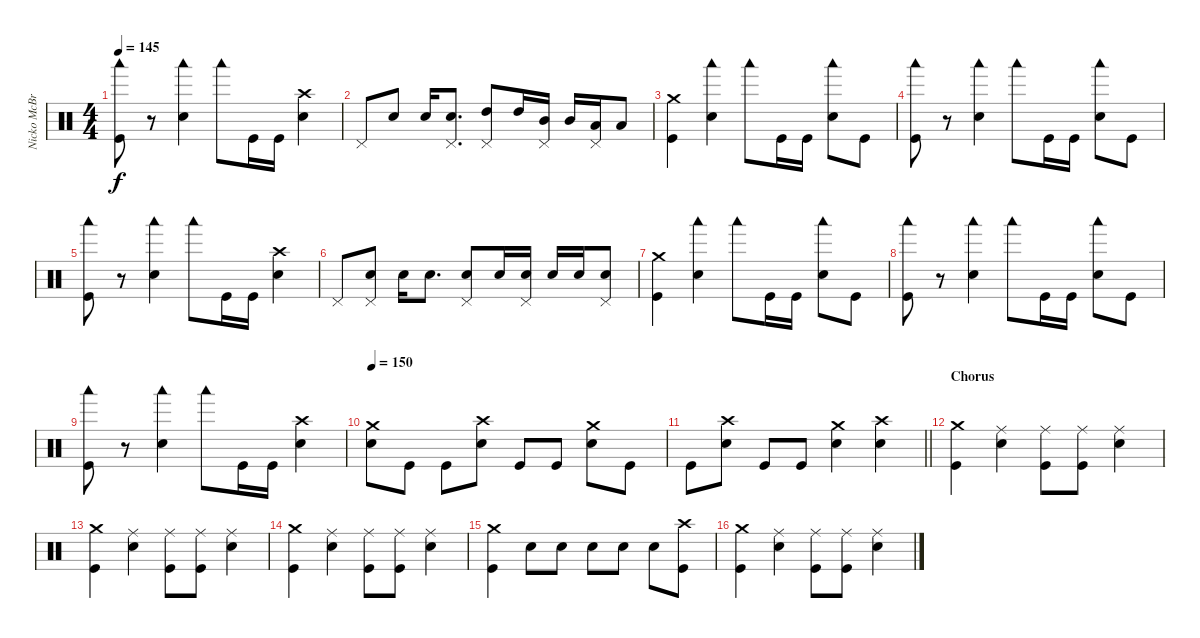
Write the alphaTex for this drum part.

\track ("Nicko McBrain" "Nicko McBr") {instrument percussion}
\staff {score}
\articulation defaults
\ts (4 4)
\tempo 145
\clef neutral
\ks c
("Woodblock low (hit)" "Kick (hit)").8{dy f} r.8 ("Woodblock low (hit)" "Electric Snare (hit)").4 "Woodblock low (hit)".8 "Kick (hit)".16 "Kick (hit)".16 ("Crash high (hit)" "Electric Snare (hit)").4 |
"Pedal Hi-Hat (hit)".8 "Electric Snare (hit)".8 "Electric Snare (hit)".16 ("Pedal Hi-Hat (hit)" "Electric Snare (hit)").8{d} ("Pedal Hi-Hat (hit)" "High Tom (hit)").8 "High Tom (hit)".16 ("Pedal Hi-Hat (hit)" "Mid Tom (hit)").16 "Mid Tom (hit)".16 ("Pedal Hi-Hat (hit)" "Low Tom (hit)").16 "Low Tom (hit)".8 |
("Crash medium (hit)" "Kick (hit)").4 ("Woodblock low (hit)" "Electric Snare (hit)").4 "Woodblock low (hit)".8 "Kick (hit)".16 "Kick (hit)".16 ("Woodblock low (hit)" "Electric Snare (hit)").8 "Kick (hit)".8 |
("Woodblock low (hit)" "Kick (hit)").8 r.8 ("Woodblock low (hit)" "Electric Snare (hit)").4 "Woodblock low (hit)".8 "Kick (hit)".16 "Kick (hit)".16 ("Woodblock low (hit)" "Electric Snare (hit)").8 "Kick (hit)".8 |
("Woodblock low (hit)" "Kick (hit)").8 r.8 ("Woodblock low (hit)" "Electric Snare (hit)").4 "Woodblock low (hit)".8 "Kick (hit)".16 "Kick (hit)".16 ("Crash high (hit)" "Electric Snare (hit)").4 |
"Pedal Hi-Hat (hit)".8 ("Pedal Hi-Hat (hit)" "Electric Snare (hit)").8 "Electric Snare (hit)".16 "Electric Snare (hit)".8{d} ("Pedal Hi-Hat (hit)" "Electric Snare (hit)").8 "Electric Snare (hit)".16 ("Pedal Hi-Hat (hit)" "Electric Snare (hit)").16 "Electric Snare (hit)".16 "Electric Snare (hit)".16 ("Pedal Hi-Hat (hit)" "Electric Snare (hit)").8 |
("Crash medium (hit)" "Kick (hit)").4 ("Woodblock low (hit)" "Electric Snare (hit)").4 "Woodblock low (hit)".8 "Kick (hit)".16 "Kick (hit)".16 ("Woodblock low (hit)" "Electric Snare (hit)").8 "Kick (hit)".8 |
("Woodblock low (hit)" "Kick (hit)").8 r.8 ("Woodblock low (hit)" "Electric Snare (hit)").4 "Woodblock low (hit)".8 "Kick (hit)".16 "Kick (hit)".16 ("Woodblock low (hit)" "Electric Snare (hit)").8 "Kick (hit)".8 |
("Woodblock low (hit)" "Kick (hit)").8 r.8 ("Woodblock low (hit)" "Electric Snare (hit)").4 "Woodblock low (hit)".8 "Kick (hit)".16 "Kick (hit)".16 ("Crash high (hit)" "Electric Snare (hit)").4 |
\tempo 150
("Crash medium (hit)" "Electric Snare (hit)").8 "Kick (hit)".8 "Kick (hit)".8 ("Crash high (hit)" "Electric Snare (hit)").8 "Kick (hit)".8 "Kick (hit)".8 ("Crash medium (hit)" "Electric Snare (hit)").8 "Kick (hit)".8 |
\barLineRight lightlight "Kick (hit)".8
("Crash high (hit)" "Electric Snare (hit)").8 "Kick (hit)".8 "Kick (hit)".8 ("Crash medium (hit)" "Electric Snare (hit)").4 ("Crash high (hit)" "Electric Snare (hit)").4 |
\section ("" "Chorus")
("Kick (hit)" "Crash medium (hit)").4 ("Electric Snare (hit)" "Ride (middle)").4 ("Kick (hit)" "Ride (middle)").8 ("Kick (hit)" "Ride (middle)").8 ("Electric Snare (hit)" "Ride (middle)").4 |
("Kick (hit)" "Crash medium (hit)").4 ("Electric Snare (hit)" "Ride (middle)").4 ("Kick (hit)" "Ride (middle)").8 ("Kick (hit)" "Ride (middle)").8 ("Electric Snare (hit)" "Ride (middle)").4 |
("Kick (hit)" "Crash medium (hit)").4 ("Electric Snare (hit)" "Ride (middle)").4 ("Kick (hit)" "Ride (middle)").8 ("Kick (hit)" "Ride (middle)").8 ("Electric Snare (hit)" "Ride (middle)").4 |
("Kick (hit)" "Crash medium (hit)").4 "Electric Snare (hit)".8 "Electric Snare (hit)".8 "Electric Snare (hit)".8 "Electric Snare (hit)".8 "Electric Snare (hit)".8 ("Kick (hit)" "Crash high (hit)").8 |
("Kick (hit)" "Crash medium (hit)").4 ("Electric Snare (hit)" "Ride (middle)").4 ("Kick (hit)" "Ride (middle)").8 ("Kick (hit)" "Ride (middle)").8 ("Electric Snare (hit)" "Ride (middle)").4
